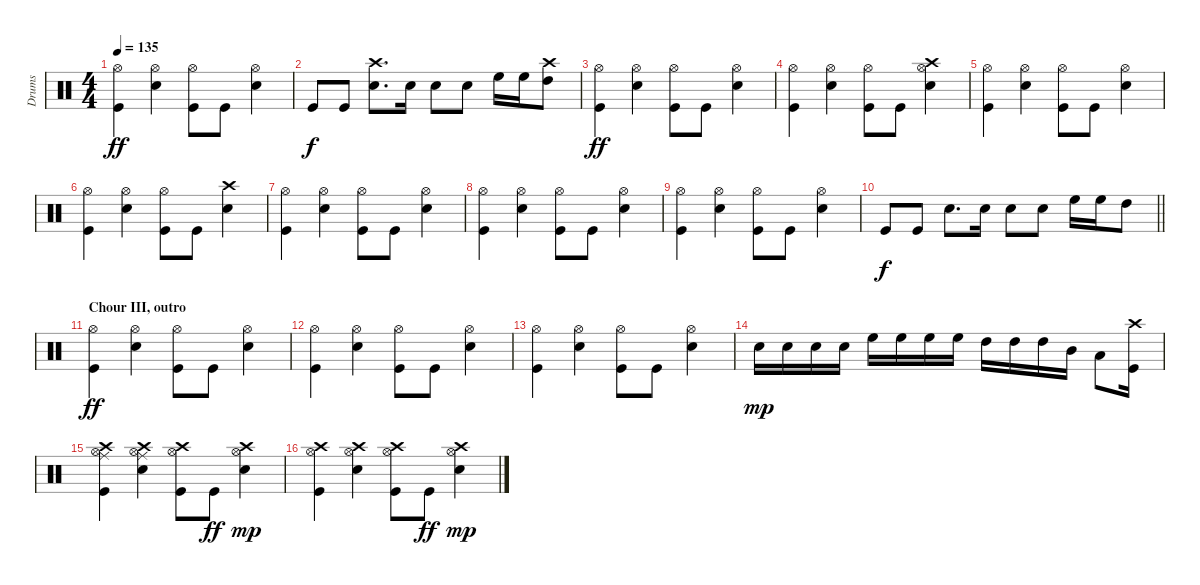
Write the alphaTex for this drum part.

\track ("Drums" "Drums") {instrument percussion}
\staff {score}
\articulation defaults
\ts (4 4)
\tempo 135
\clef neutral
\ks c
("Kick (hit)" "Hi-Hat (open)").4{dy ff} ("Snare (hit) 2" "Hi-Hat (open)").4 ("Kick (hit)" "Hi-Hat (open)").8 "Kick (hit)".8 ("Snare (hit) 2" "Hi-Hat (open)").4 |
"Kick (hit)".8{dy f} "Kick (hit)".8 ("Snare (hit) 2" "Crash high (hit)").8{d} "Snare (hit) 2".16 "Snare (hit) 2".8 "Snare (hit) 2".8 "High Floor Tom (hit)".16 "High Floor Tom (hit)".16 ("High Tom (hit)" "Crash high (hit)").8 |
("Kick (hit)" "Hi-Hat (open)").4{dy ff} ("Snare (hit) 2" "Hi-Hat (open)").4 ("Kick (hit)" "Hi-Hat (open)").8 "Kick (hit)".8 ("Snare (hit) 2" "Hi-Hat (open)").4 |
("Kick (hit)" "Hi-Hat (open)").4 ("Snare (hit) 2" "Hi-Hat (open)").4 ("Kick (hit)" "Hi-Hat (open)").8 "Kick (hit)".8 ("Snare (hit) 2" "Hi-Hat (open)" "Crash high (hit)").4 |
("Kick (hit)" "Hi-Hat (open)").4 ("Snare (hit) 2" "Hi-Hat (open)").4 ("Kick (hit)" "Hi-Hat (open)").8 "Kick (hit)".8 ("Snare (hit) 2" "Hi-Hat (open)").4 |
("Kick (hit)" "Hi-Hat (open)").4 ("Snare (hit) 2" "Hi-Hat (open)").4 ("Kick (hit)" "Hi-Hat (open)").8 "Kick (hit)".8 ("Snare (hit) 2" "Crash high (hit)").4 |
("Kick (hit)" "Hi-Hat (open)").4 ("Snare (hit) 2" "Hi-Hat (open)").4 ("Kick (hit)" "Hi-Hat (open)").8 "Kick (hit)".8 ("Snare (hit) 2" "Hi-Hat (open)").4 |
("Kick (hit)" "Hi-Hat (open)").4 ("Snare (hit) 2" "Hi-Hat (open)").4 ("Kick (hit)" "Hi-Hat (open)").8 "Kick (hit)".8 ("Snare (hit) 2" "Hi-Hat (open)").4 |
("Kick (hit)" "Hi-Hat (open)").4 ("Snare (hit) 2" "Hi-Hat (open)").4 ("Kick (hit)" "Hi-Hat (open)").8 "Kick (hit)".8 ("Snare (hit) 2" "Hi-Hat (open)").4 |
\barLineRight lightlight "Kick (hit)".8{dy f} "Kick (hit)".8 "Snare (hit) 2".8{d} "Snare (hit) 2".16 "Snare (hit) 2".8 "Snare (hit) 2".8 "High Floor Tom (hit)".16 "High Floor Tom (hit)".16 "High Tom (hit)".8
|
\section ("" "Chour III, outro")
("Kick (hit)" "Hi-Hat (open)").4{dy ff} ("Snare (hit) 2" "Hi-Hat (open)").4 ("Kick (hit)" "Hi-Hat (open)").8 "Kick (hit)".8 ("Snare (hit) 2" "Hi-Hat (open)").4 |
("Kick (hit)" "Hi-Hat (open)").4 ("Snare (hit) 2" "Hi-Hat (open)").4 ("Kick (hit)" "Hi-Hat (open)").8 "Kick (hit)".8 ("Snare (hit) 2" "Hi-Hat (open)").4 |
("Kick (hit)" "Hi-Hat (open)").4 ("Snare (hit) 2" "Hi-Hat (open)").4 ("Kick (hit)" "Hi-Hat (open)").8 "Kick (hit)".8 ("Snare (hit) 2" "Hi-Hat (open)").4 |
"Snare (hit) 2".16{dy mp} "Snare (hit) 2".16 "Snare (hit) 2".16 "Snare (hit) 2".16 "High Floor Tom (hit)".16 "High Floor Tom (hit)".16 "High Floor Tom (hit)".16 "High Floor Tom (hit)".16 "High Tom (hit)".16 "High Tom (hit)".16 "High Tom (hit)".16 "Mid Tom (hit)".16 "Low Tom (hit)".8 ("Kick (hit)" "Crash high (hit)").16 |
("Kick (hit)" "Hi-Hat (open)" "Ride (middle)" "Crash high (hit)").4 ("Snare (hit) 2" "Hi-Hat (open)" "Ride (middle)" "Crash high (hit)").4 ("Kick (hit)" "Hi-Hat (open)" "Crash high (hit)").8 "Kick (hit)".8{dy ff} ("Snare (hit) 2" "Hi-Hat (open)" "Crash high (hit)").4{dy mp} |
("Kick (hit)" "Hi-Hat (open)" "Crash high (hit)").4 ("Snare (hit) 2" "Hi-Hat (open)" "Crash high (hit)").4 ("Kick (hit)" "Hi-Hat (open)" "Crash high (hit)").8 "Kick (hit)".8{dy ff} ("Snare (hit) 2" "Hi-Hat (open)" "Crash high (hit)").4{dy mp}
